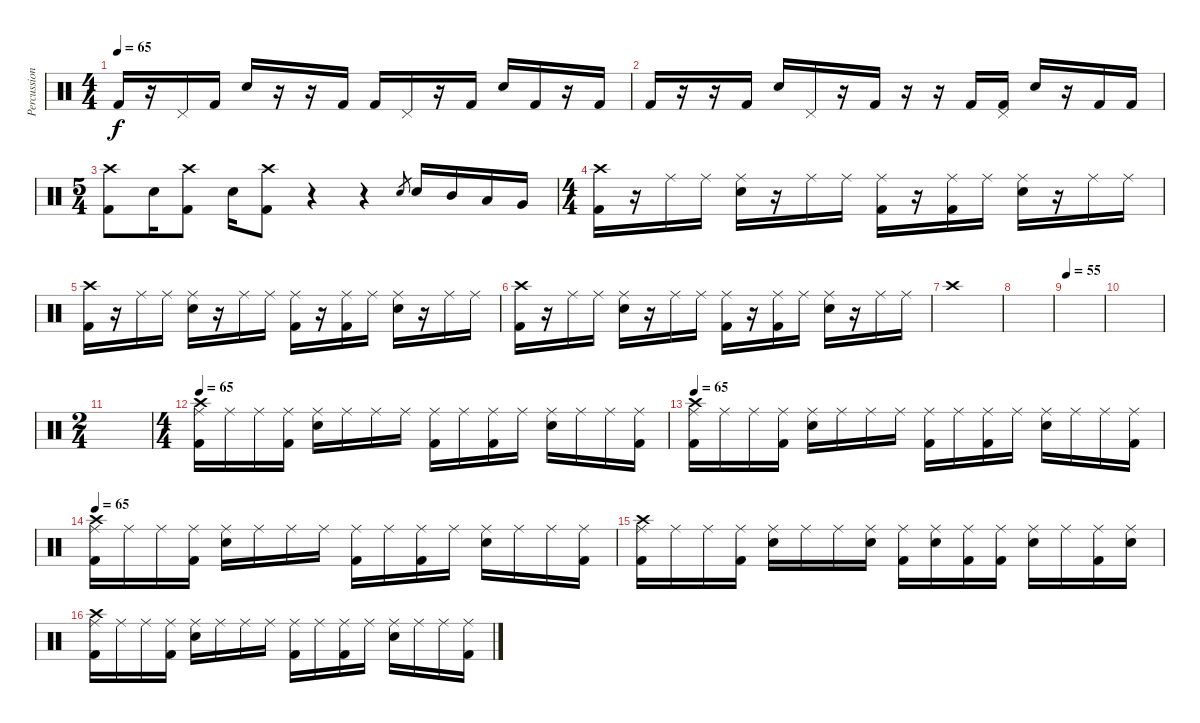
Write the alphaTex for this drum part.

\track ("Percussioni" "Percussion") {instrument percussion}
\staff {score}
\articulation defaults
\ts (4 4)
\tempo 65
\clef neutral
\ks c "Kick (hit) 2".16{dy f}
r.16 "Pedal Hi-Hat (hit)".16 "Kick (hit) 2".16 "Snare (hit) 2".16 r.16 r.16 "Kick (hit) 2".16 "Kick (hit) 2".16 "Pedal Hi-Hat (hit)".16 r.16 "Kick (hit) 2".16 "Snare (hit) 2".16 "Kick (hit) 2".16 r.16 "Kick (hit) 2".16 |
"Kick (hit) 2".16 r.16 r.16 "Kick (hit) 2".16 "Snare (hit) 2".16 "Pedal Hi-Hat (hit)".16 r.16 "Kick (hit) 2".16 r.16 r.16 "Kick (hit) 2".16 ("Pedal Hi-Hat (hit)" "Kick (hit) 2").16 "Snare (hit) 2".16 r.16 "Kick (hit) 2".16 "Kick (hit) 2".16 |
\ts (5 4)
("Crash high (hit)" "Kick (hit) 2").8 "Snare (hit) 2".16 ("Crash high (hit)" "Kick (hit) 2").8 "Snare (hit) 2".16 ("Crash high (hit)" "Kick (hit) 2").8 r.4 r.4 "Snare (hit) 2".8{gr} "Snare (hit) 2".16 "Mid Tom (hit)".16 "Low Tom (hit)".16 "Very Low Tom (hit)".16 |
\ts (4 4)
("Crash high (hit)" "Kick (hit) 2").16 r.16 "Ride (middle)".16 "Ride (middle)".16 ("Ride (middle)" "Snare (hit) 2").16 r.16 "Ride (middle)".16 "Ride (middle)".16 ("Ride (middle)" "Kick (hit) 2").16 r.16 ("Ride (middle)" "Kick (hit) 2").16 "Ride (middle)".16 ("Ride (middle)" "Snare (hit) 2").16 r.16 "Ride (middle)".16 "Ride (middle)".16 |
("Crash high (hit)" "Kick (hit) 2").16 r.16 "Ride (middle)".16 "Ride (middle)".16 ("Ride (middle)" "Snare (hit) 2").16 r.16 "Ride (middle)".16 "Ride (middle)".16 ("Ride (middle)" "Kick (hit) 2").16 r.16 ("Ride (middle)" "Kick (hit) 2").16 "Ride (middle)".16 ("Ride (middle)" "Snare (hit) 2").16 r.16 "Ride (middle)".16 "Ride (middle)".16 |
("Crash high (hit)" "Kick (hit) 2").16 r.16 "Ride (middle)".16 "Ride (middle)".16 ("Ride (middle)" "Snare (hit) 2").16 r.16 "Ride (middle)".16 "Ride (middle)".16 ("Ride (middle)" "Kick (hit) 2").16 r.16 ("Ride (middle)" "Kick (hit) 2").16 "Ride (middle)".16 ("Ride (middle)" "Snare (hit) 2").16 r.16 "Ride (middle)".16 "Ride (middle)".16 |
"Crash high (hit)".1 |
|
\tempo 55
|
|
\ts (2 4)
|
\ts (4 4)
\tempo 65
("Ride (middle)" "Crash high (hit)" "Kick (hit) 2").16 "Ride (middle)".16 "Ride (middle)".16 ("Ride (middle)" "Kick (hit) 2").16 ("Ride (middle)" "Snare (hit) 2").16 "Ride (middle)".16 "Ride (middle)".16 "Ride (middle)".16 ("Ride (middle)" "Kick (hit) 2").16 "Ride (middle)".16 ("Ride (middle)" "Kick (hit) 2").16 "Ride (middle)".16 ("Ride (middle)" "Snare (hit) 2").16 "Ride (middle)".16 "Ride (middle)".16 ("Ride (middle)" "Kick (hit) 2").16 |
\tempo 65
("Ride (middle)" "Crash high (hit)" "Kick (hit) 2").16 "Ride (middle)".16 "Ride (middle)".16 ("Ride (middle)" "Kick (hit) 2").16 ("Ride (middle)" "Snare (hit) 2").16 "Ride (middle)".16 "Ride (middle)".16 "Ride (middle)".16 ("Ride (middle)" "Kick (hit) 2").16 "Ride (middle)".16 ("Ride (middle)" "Kick (hit) 2").16 "Ride (middle)".16 ("Ride (middle)" "Snare (hit) 2").16 "Ride (middle)".16 "Ride (middle)".16 ("Ride (middle)" "Kick (hit) 2").16 |
\tempo 65
("Ride (middle)" "Crash high (hit)" "Kick (hit) 2").16 "Ride (middle)".16 "Ride (middle)".16 ("Ride (middle)" "Kick (hit) 2").16 ("Ride (middle)" "Snare (hit) 2").16 "Ride (middle)".16 "Ride (middle)".16 "Ride (middle)".16 ("Ride (middle)" "Kick (hit) 2").16 "Ride (middle)".16 ("Ride (middle)" "Kick (hit) 2").16 "Ride (middle)".16 ("Ride (middle)" "Snare (hit) 2").16 "Ride (middle)".16 "Ride (middle)".16 ("Ride (middle)" "Kick (hit) 2").16 |
("Ride (middle)" "Crash high (hit)" "Kick (hit) 2").16 "Ride (middle)".16 "Ride (middle)".16 ("Ride (middle)" "Kick (hit) 2").16 ("Ride (middle)" "Snare (hit) 2").16 "Ride (middle)".16 "Ride (middle)".16 ("Ride (middle)" "Snare (hit) 2").16 ("Ride (middle)" "Kick (hit) 2").16 ("Ride (middle)" "Snare (hit) 2").16 ("Ride (middle)" "Kick (hit) 2").16 ("Ride (middle)" "Kick (hit) 2").16 ("Ride (middle)" "Snare (hit) 2").16 "Ride (middle)".16 ("Ride (middle)" "Kick (hit) 2").16 ("Ride (middle)" "Snare (hit) 2").16 |
("Ride (middle)" "Crash high (hit)" "Kick (hit) 2").16 "Ride (middle)".16 "Ride (middle)".16 ("Ride (middle)" "Kick (hit) 2").16 ("Ride (middle)" "Snare (hit) 2").16 "Ride (middle)".16 "Ride (middle)".16 "Ride (middle)".16 ("Ride (middle)" "Kick (hit) 2").16 "Ride (middle)".16 ("Ride (middle)" "Kick (hit) 2").16 "Ride (middle)".16 ("Ride (middle)" "Snare (hit) 2").16 "Ride (middle)".16 "Ride (middle)".16 ("Ride (middle)" "Kick (hit) 2").16
